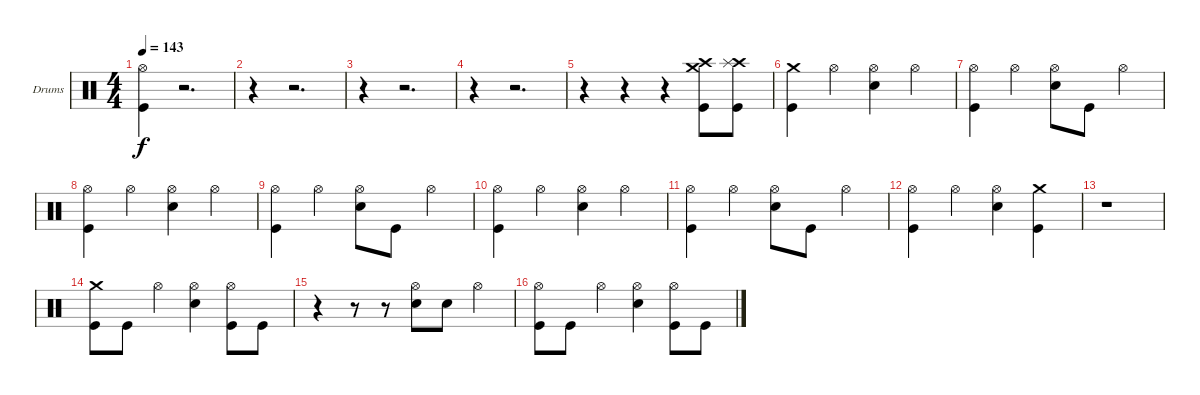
\bracketExtendMode groupsimilarinstruments
\firstSystemTrackNameOrientation horizontal
\otherSystemsTrackNameOrientation horizontal
\track ("Drumkit" "Drums") {instrument percussion}
\staff {score}
\articulation defaults
\ts (4 4)
\tempo 143
\clef neutral
\ks c
("Hi-Hat (open)" "Kick (hit)").4{dy f} r.2{d} |
r.4 r.2{d} |
r.4 r.2{d} |
r.4 r.2{d} |
r.4 r.4 r.4 ("Crash medium (hit)" "Crash high (hit)" "Kick (hit)").8 ("Crash high (hit)" "Splash (hit)" "Kick (hit)").8 |
("Crash medium (hit)" "Kick (hit)").4 "Hi-Hat (open)".4 ("Hi-Hat (open)" "Snare (hit) 2").4 "Hi-Hat (open)".4 |
("Hi-Hat (open)" "Kick (hit)").4 "Hi-Hat (open)".4 ("Hi-Hat (open)" "Snare (hit) 2").8 "Kick (hit)".8 "Hi-Hat (open)".4 |
("Hi-Hat (open)" "Kick (hit)").4 "Hi-Hat (open)".4 ("Hi-Hat (open)" "Snare (hit) 2").4 "Hi-Hat (open)".4 |
("Hi-Hat (open)" "Kick (hit)").4 "Hi-Hat (open)".4 ("Hi-Hat (open)" "Snare (hit) 2").8 "Kick (hit)".8 "Hi-Hat (open)".4 |
("Hi-Hat (open)" "Kick (hit)").4 "Hi-Hat (open)".4 ("Hi-Hat (open)" "Snare (hit) 2").4 "Hi-Hat (open)".4 |
("Hi-Hat (open)" "Kick (hit)").4 "Hi-Hat (open)".4 ("Hi-Hat (open)" "Snare (hit) 2").8 "Kick (hit)".8 "Hi-Hat (open)".4 |
("Hi-Hat (open)" "Kick (hit)").4 "Hi-Hat (open)".4 ("Hi-Hat (open)" "Snare (hit) 2").4 ("Crash medium (hit)" "Kick (hit)").4 |
r.1 |
("Crash medium (hit)" "Kick (hit)").8 "Kick (hit)".8 "Hi-Hat (open)".4 ("Hi-Hat (open)" "Snare (hit) 2").4 ("Hi-Hat (open)" "Kick (hit)").8 "Kick (hit)".8 |
r.4 r.8 r.8 ("Hi-Hat (open)" "Snare (hit) 2").8 "Snare (hit) 2".8 "Hi-Hat (open)".4 |
("Hi-Hat (open)" "Kick (hit)").8 "Kick (hit)".8 "Hi-Hat (open)".4 ("Hi-Hat (open)" "Snare (hit) 2").4 ("Hi-Hat (open)" "Kick (hit)").8 "Kick (hit)".8
